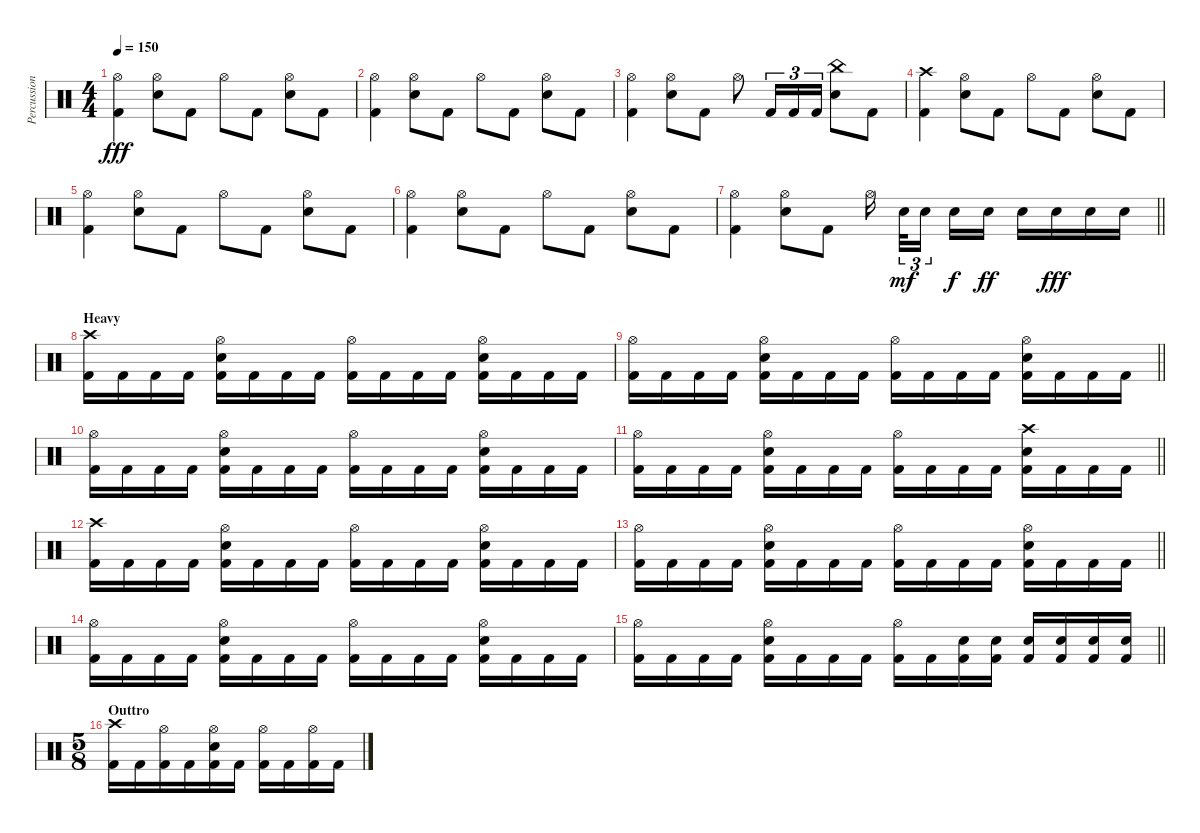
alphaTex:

\track ("Percussion" "Percussion") {instrument percussion}
\staff {score}
\articulation defaults
\ts (4 4)
\tempo 150
\clef neutral
\ks c
("Hi-Hat (open)" "Kick (hit) 2").4{dy fff} ("Snare (hit) 2" "Hi-Hat (open)").8 "Kick (hit) 2".8 "Hi-Hat (open)".8 "Kick (hit) 2".8 ("Snare (hit) 2" "Hi-Hat (open)").8 "Kick (hit) 2".8 |
("Hi-Hat (open)" "Kick (hit) 2").4 ("Snare (hit) 2" "Hi-Hat (open)").8 "Kick (hit) 2".8 "Hi-Hat (open)".8 "Kick (hit) 2".8 ("Snare (hit) 2" "Hi-Hat (open)").8 "Kick (hit) 2".8 |
("Hi-Hat (open)" "Kick (hit) 2").4 ("Snare (hit) 2" "Hi-Hat (open)").8 "Kick (hit) 2".8 "Hi-Hat (open)".8 "Kick (hit) 2".16{tu (3 2)} "Kick (hit) 2".16{tu (3 2)} "Kick (hit) 2".16{tu (3 2)} ("China (hit)" "Snare (hit) 2").8 "Kick (hit) 2".8 |
("Crash high (hit)" "Kick (hit) 2").4 ("Snare (hit) 2" "Hi-Hat (open)").8 "Kick (hit) 2".8 "Hi-Hat (open)".8 "Kick (hit) 2".8 ("Snare (hit) 2" "Hi-Hat (open)").8 "Kick (hit) 2".8 |
("Hi-Hat (open)" "Kick (hit) 2").4 ("Snare (hit) 2" "Hi-Hat (open)").8 "Kick (hit) 2".8 "Hi-Hat (open)".8 "Kick (hit) 2".8 ("Snare (hit) 2" "Hi-Hat (open)").8 "Kick (hit) 2".8 |
("Hi-Hat (open)" "Kick (hit) 2").4 ("Snare (hit) 2" "Hi-Hat (open)").8 "Kick (hit) 2".8 "Hi-Hat (open)".8 "Kick (hit) 2".8 ("Snare (hit) 2" "Hi-Hat (open)").8 "Kick (hit) 2".8 |
\barLineRight lightlight
("Hi-Hat (open)" "Kick (hit) 2").4 ("Snare (hit) 2" "Hi-Hat (open)").8 "Kick (hit) 2".8 "Hi-Hat (open)".16{beam splitsecondary} "Snare (hit) 2".32{tu (3 2) dy mf} "Snare (hit) 2".16{tu (3 2) beam splitsecondary} "Snare (hit) 2".16{dy f} "Snare (hit) 2".16{dy ff} "Snare (hit) 2".16 "Snare (hit) 2".16{dy fff} "Snare (hit) 2".16 "Snare (hit) 2".16 |
\section ("" "Heavy")
("Crash high (hit)" "Kick (hit) 2").16 "Kick (hit) 2".16 "Kick (hit) 2".16 "Kick (hit) 2".16 ("Snare (hit) 2" "Hi-Hat (open)" "Kick (hit) 2").16 "Kick (hit) 2".16 "Kick (hit) 2".16 "Kick (hit) 2".16 ("Hi-Hat (open)" "Kick (hit) 2").16 "Kick (hit) 2".16 "Kick (hit) 2".16 "Kick (hit) 2".16 ("Snare (hit) 2" "Hi-Hat (open)" "Kick (hit) 2").16 "Kick (hit) 2".16 "Kick (hit) 2".16 "Kick (hit) 2".16 |
\barLineRight lightlight
("Hi-Hat (open)" "Kick (hit) 2").16 "Kick (hit) 2".16 "Kick (hit) 2".16 "Kick (hit) 2".16 ("Snare (hit) 2" "Hi-Hat (open)" "Kick (hit) 2").16 "Kick (hit) 2".16 "Kick (hit) 2".16 "Kick (hit) 2".16 ("Hi-Hat (open)" "Kick (hit) 2").16 "Kick (hit) 2".16 "Kick (hit) 2".16 "Kick (hit) 2".16 ("Snare (hit) 2" "Hi-Hat (open)" "Kick (hit) 2").16 "Kick (hit) 2".16 "Kick (hit) 2".16 "Kick (hit) 2".16 |
("Hi-Hat (open)" "Kick (hit) 2").16 "Kick (hit) 2".16 "Kick (hit) 2".16 "Kick (hit) 2".16 ("Snare (hit) 2" "Hi-Hat (open)" "Kick (hit) 2").16 "Kick (hit) 2".16 "Kick (hit) 2".16 "Kick (hit) 2".16 ("Hi-Hat (open)" "Kick (hit) 2").16 "Kick (hit) 2".16 "Kick (hit) 2".16 "Kick (hit) 2".16 ("Snare (hit) 2" "Hi-Hat (open)" "Kick (hit) 2").16 "Kick (hit) 2".16 "Kick (hit) 2".16 "Kick (hit) 2".16 |
\barLineRight lightlight
("Hi-Hat (open)" "Kick (hit) 2").16 "Kick (hit) 2".16 "Kick (hit) 2".16 "Kick (hit) 2".16 ("Snare (hit) 2" "Hi-Hat (open)" "Kick (hit) 2").16 "Kick (hit) 2".16 "Kick (hit) 2".16 "Kick (hit) 2".16 ("Hi-Hat (open)" "Kick (hit) 2").16 "Kick (hit) 2".16 "Kick (hit) 2".16 "Kick (hit) 2".16 ("Crash high (hit)" "Snare (hit) 2" "Kick (hit) 2").16 "Kick (hit) 2".16 "Kick (hit) 2".16 "Kick (hit) 2".16 |
("Crash high (hit)" "Kick (hit) 2").16 "Kick (hit) 2".16 "Kick (hit) 2".16 "Kick (hit) 2".16 ("Snare (hit) 2" "Hi-Hat (open)" "Kick (hit) 2").16 "Kick (hit) 2".16 "Kick (hit) 2".16 "Kick (hit) 2".16 ("Hi-Hat (open)" "Kick (hit) 2").16 "Kick (hit) 2".16 "Kick (hit) 2".16 "Kick (hit) 2".16 ("Snare (hit) 2" "Hi-Hat (open)" "Kick (hit) 2").16 "Kick (hit) 2".16 "Kick (hit) 2".16 "Kick (hit) 2".16 |
\barLineRight lightlight
("Hi-Hat (open)" "Kick (hit) 2").16 "Kick (hit) 2".16 "Kick (hit) 2".16 "Kick (hit) 2".16 ("Snare (hit) 2" "Hi-Hat (open)" "Kick (hit) 2").16 "Kick (hit) 2".16 "Kick (hit) 2".16 "Kick (hit) 2".16 ("Hi-Hat (open)" "Kick (hit) 2").16 "Kick (hit) 2".16 "Kick (hit) 2".16 "Kick (hit) 2".16 ("Snare (hit) 2" "Hi-Hat (open)" "Kick (hit) 2").16 "Kick (hit) 2".16 "Kick (hit) 2".16 "Kick (hit) 2".16 |
("Hi-Hat (open)" "Kick (hit) 2").16 "Kick (hit) 2".16 "Kick (hit) 2".16 "Kick (hit) 2".16 ("Snare (hit) 2" "Hi-Hat (open)" "Kick (hit) 2").16 "Kick (hit) 2".16 "Kick (hit) 2".16 "Kick (hit) 2".16 ("Hi-Hat (open)" "Kick (hit) 2").16 "Kick (hit) 2".16 "Kick (hit) 2".16 "Kick (hit) 2".16 ("Snare (hit) 2" "Hi-Hat (open)" "Kick (hit) 2").16 "Kick (hit) 2".16 "Kick (hit) 2".16 "Kick (hit) 2".16 |
\barLineRight lightlight
("Hi-Hat (open)" "Kick (hit) 2").16 "Kick (hit) 2".16 "Kick (hit) 2".16 "Kick (hit) 2".16 ("Snare (hit) 2" "Hi-Hat (open)" "Kick (hit) 2").16 "Kick (hit) 2".16 "Kick (hit) 2".16 "Kick (hit) 2".16 ("Hi-Hat (open)" "Kick (hit) 2").16 "Kick (hit) 2".16 ("Snare (hit) 2" "Kick (hit) 2").16 ("Snare (hit) 2" "Kick (hit) 2").16 ("Snare (hit) 2" "Kick (hit) 2").16 ("Snare (hit) 2" "Kick (hit) 2").16 ("Snare (hit) 2" "Kick (hit) 2").16 ("Snare (hit) 2" "Kick (hit) 2").16 |
\ts (5 8)
\section ("" "Outtro")
("Crash high (hit)" "Kick (hit) 2").16 "Kick (hit) 2".16 ("Hi-Hat (open)" "Kick (hit) 2").16 "Kick (hit) 2".16 ("Snare (hit) 2" "Hi-Hat (open)" "Kick (hit) 2").16 "Kick (hit) 2".16 ("Hi-Hat (open)" "Kick (hit) 2").16 "Kick (hit) 2".16 ("Hi-Hat (open)" "Kick (hit) 2").16 "Kick (hit) 2".16
